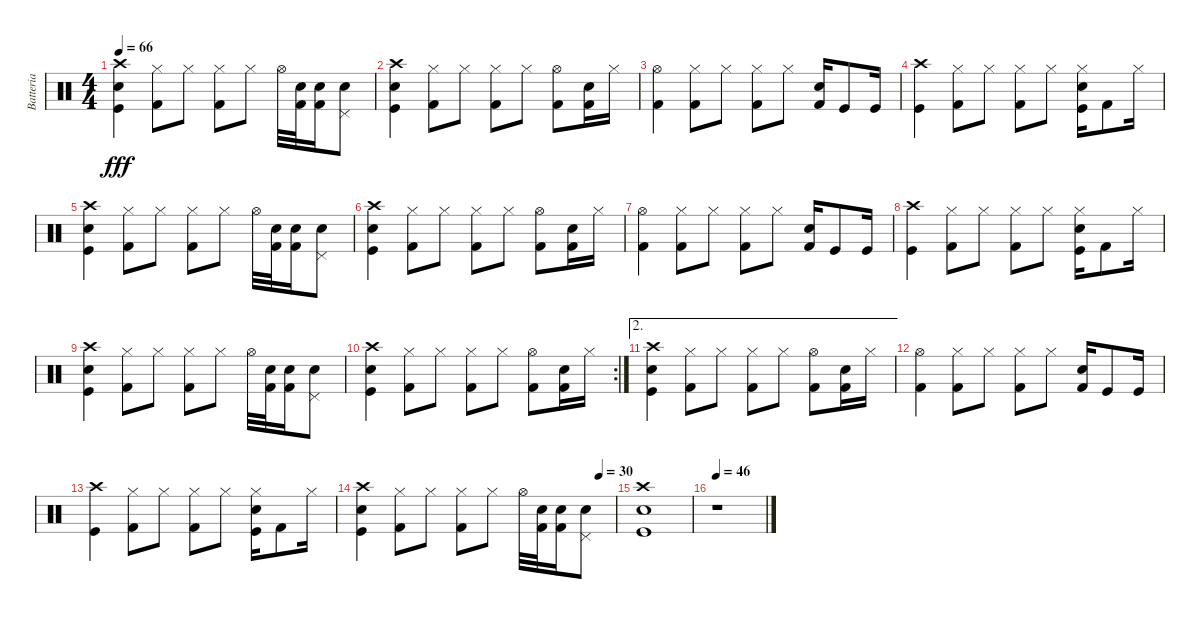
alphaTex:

\track ("Batteria" "Batteria") {instrument percussion}
\staff {score}
\articulation defaults
\ts (4 4)
\tempo 66
\clef neutral
\ks c
("Crash high (hit)" "Snare (hit) 2" "Kick (hit)").4{dy fff} ("Hi-Hat (closed)" "Kick (hit) 2").8 "Hi-Hat (closed)".8 ("Hi-Hat (closed)" "Kick (hit) 2").8 "Hi-Hat (closed)".8 "Hi-Hat (open)".32 ("Snare (hit) 2" "Kick (hit) 2").32 ("Snare (hit) 2" "Kick (hit) 2").16 ("Pedal Hi-Hat (hit)" "Snare (hit) 2").8 |
("Crash high (hit)" "Snare (hit) 2" "Kick (hit)").4 ("Hi-Hat (closed)" "Kick (hit) 2").8 "Hi-Hat (closed)".8 ("Hi-Hat (closed)" "Kick (hit) 2").8 "Hi-Hat (closed)".8 ("Hi-Hat (open)" "Kick (hit) 2").8 ("Snare (hit) 2" "Kick (hit) 2").16 "Hi-Hat (closed)".16 |
("Hi-Hat (open)" "Kick (hit) 2").4 ("Hi-Hat (closed)" "Kick (hit) 2").8 "Hi-Hat (closed)".8 ("Hi-Hat (closed)" "Kick (hit) 2").8 "Hi-Hat (closed)".8 ("Snare (hit) 2" "Kick (hit) 2").16 "Kick (hit)".8 "Kick (hit)".16 |
("Crash high (hit)" "Kick (hit)").4 ("Hi-Hat (closed)" "Kick (hit) 2").8 "Hi-Hat (closed)".8 ("Hi-Hat (closed)" "Kick (hit) 2").8 "Hi-Hat (closed)".8 ("Hi-Hat (closed)" "Snare (hit) 2" "Kick (hit)").16 "Kick (hit) 2".8 "Hi-Hat (closed)".16 |
("Crash high (hit)" "Snare (hit) 2" "Kick (hit)").4 ("Hi-Hat (closed)" "Kick (hit) 2").8 "Hi-Hat (closed)".8 ("Hi-Hat (closed)" "Kick (hit) 2").8 "Hi-Hat (closed)".8 "Hi-Hat (open)".32 ("Snare (hit) 2" "Kick (hit) 2").32 ("Snare (hit) 2" "Kick (hit) 2").16 ("Pedal Hi-Hat (hit)" "Snare (hit) 2").8 |
("Crash high (hit)" "Snare (hit) 2" "Kick (hit)").4 ("Hi-Hat (closed)" "Kick (hit) 2").8 "Hi-Hat (closed)".8 ("Hi-Hat (closed)" "Kick (hit) 2").8 "Hi-Hat (closed)".8 ("Hi-Hat (open)" "Kick (hit) 2").8 ("Snare (hit) 2" "Kick (hit) 2").16 "Hi-Hat (closed)".16 |
("Hi-Hat (open)" "Kick (hit) 2").4 ("Hi-Hat (closed)" "Kick (hit) 2").8 "Hi-Hat (closed)".8 ("Hi-Hat (closed)" "Kick (hit) 2").8 "Hi-Hat (closed)".8 ("Snare (hit) 2" "Kick (hit) 2").16 "Kick (hit)".8 "Kick (hit)".16 |
("Crash high (hit)" "Kick (hit)").4 ("Hi-Hat (closed)" "Kick (hit) 2").8 "Hi-Hat (closed)".8 ("Hi-Hat (closed)" "Kick (hit) 2").8 "Hi-Hat (closed)".8 ("Hi-Hat (closed)" "Snare (hit) 2" "Kick (hit)").16 "Kick (hit) 2".8 "Hi-Hat (closed)".16 |
("Crash high (hit)" "Snare (hit) 2" "Kick (hit)").4 ("Hi-Hat (closed)" "Kick (hit) 2").8 "Hi-Hat (closed)".8 ("Hi-Hat (closed)" "Kick (hit) 2").8 "Hi-Hat (closed)".8 "Hi-Hat (open)".32 ("Snare (hit) 2" "Kick (hit) 2").32 ("Snare (hit) 2" "Kick (hit) 2").16 ("Pedal Hi-Hat (hit)" "Snare (hit) 2").8 |
\rc 2
("Crash high (hit)" "Snare (hit) 2" "Kick (hit)").4 ("Hi-Hat (closed)" "Kick (hit) 2").8 "Hi-Hat (closed)".8 ("Hi-Hat (closed)" "Kick (hit) 2").8 "Hi-Hat (closed)".8 ("Hi-Hat (open)" "Kick (hit) 2").8 ("Snare (hit) 2" "Kick (hit) 2").16 "Hi-Hat (closed)".16 |
\ae 2
("Crash high (hit)" "Snare (hit) 2" "Kick (hit)").4 ("Hi-Hat (closed)" "Kick (hit) 2").8 "Hi-Hat (closed)".8 ("Hi-Hat (closed)" "Kick (hit) 2").8 "Hi-Hat (closed)".8 ("Hi-Hat (open)" "Kick (hit) 2").8 ("Snare (hit) 2" "Kick (hit) 2").16 "Hi-Hat (closed)".16 |
("Hi-Hat (open)" "Kick (hit) 2").4 ("Hi-Hat (closed)" "Kick (hit) 2").8 "Hi-Hat (closed)".8 ("Hi-Hat (closed)" "Kick (hit) 2").8 "Hi-Hat (closed)".8 ("Snare (hit) 2" "Kick (hit) 2").16 "Kick (hit)".8 "Kick (hit)".16 |
("Crash high (hit)" "Kick (hit)").4 ("Hi-Hat (closed)" "Kick (hit) 2").8 "Hi-Hat (closed)".8 ("Hi-Hat (closed)" "Kick (hit) 2").8 "Hi-Hat (closed)".8 ("Hi-Hat (closed)" "Snare (hit) 2" "Kick (hit)").16 "Kick (hit) 2".8 "Hi-Hat (closed)".16 |
\tempo (30 0.9375)
("Crash high (hit)" "Snare (hit) 2" "Kick (hit)").4 ("Hi-Hat (closed)" "Kick (hit) 2").8 "Hi-Hat (closed)".8 ("Hi-Hat (closed)" "Kick (hit) 2").8 "Hi-Hat (closed)".8 "Hi-Hat (open)".32 ("Snare (hit) 2" "Kick (hit) 2").32 ("Snare (hit) 2" "Kick (hit) 2").16 ("Pedal Hi-Hat (hit)" "Snare (hit) 2").8 |
("Crash high (hit)" "Snare (hit) 2" "Kick (hit)").1 |
\tempo 46
r.1
